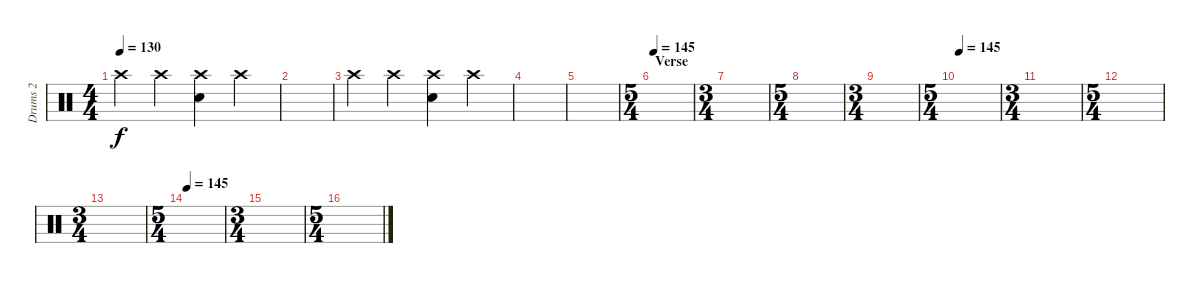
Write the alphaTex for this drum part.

\track ("Drums 2" "Drums 2") {instrument percussion}
\staff {score}
\articulation defaults
\ts (4 4)
\tempo 130
\clef neutral
\ks c "Crash high (hit)".4{dy f} "Crash high (hit)".4
("Crash high (hit)" "Electric Snare (hit)").4 "Crash high (hit)".4 |
|
"Crash high (hit)".4 "Crash high (hit)".4 ("Crash high (hit)" "Electric Snare (hit)").4 "Crash high (hit)".4 |
|
|
\ts (5 4)
\section ("" "Verse")
\tempo 145
|
\ts (3 4)
|
\ts (5 4)
|
\ts (3 4)
|
\ts (5 4)
\tempo 145
|
\ts (3 4)
|
\ts (5 4)
|
\ts (3 4)
|
\ts (5 4)
\tempo 145
|
\ts (3 4)
|
\ts (5 4)
